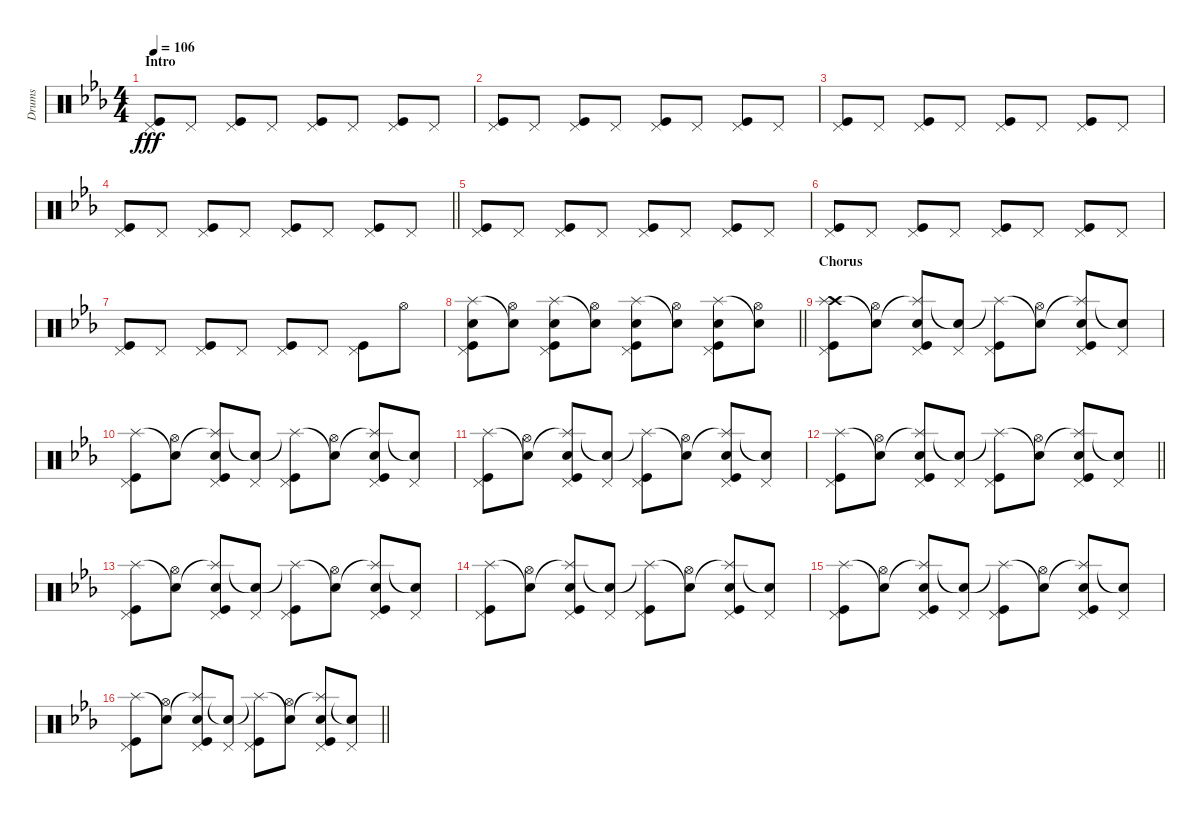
\track ("Drums" "Drums") {instrument percussion}
\staff {score}
\articulation defaults
\ts (4 4)
\section ("" "Intro")
\tempo 106
\clef neutral
\ks eb
("Pedal Hi-Hat (hit)" "Kick (hit)").8{dy fff} "Pedal Hi-Hat (hit)".8 ("Pedal Hi-Hat (hit)" "Kick (hit)").8 "Pedal Hi-Hat (hit)".8 ("Pedal Hi-Hat (hit)" "Kick (hit)").8 "Pedal Hi-Hat (hit)".8 ("Pedal Hi-Hat (hit)" "Kick (hit)").8 "Pedal Hi-Hat (hit)".8 |
("Pedal Hi-Hat (hit)" "Kick (hit)").8 "Pedal Hi-Hat (hit)".8 ("Pedal Hi-Hat (hit)" "Kick (hit)").8 "Pedal Hi-Hat (hit)".8 ("Pedal Hi-Hat (hit)" "Kick (hit)").8 "Pedal Hi-Hat (hit)".8 ("Pedal Hi-Hat (hit)" "Kick (hit)").8 "Pedal Hi-Hat (hit)".8 |
("Pedal Hi-Hat (hit)" "Kick (hit)").8 "Pedal Hi-Hat (hit)".8 ("Pedal Hi-Hat (hit)" "Kick (hit)").8 "Pedal Hi-Hat (hit)".8 ("Pedal Hi-Hat (hit)" "Kick (hit)").8 "Pedal Hi-Hat (hit)".8 ("Pedal Hi-Hat (hit)" "Kick (hit)").8 "Pedal Hi-Hat (hit)".8 |
\barLineRight lightlight
("Pedal Hi-Hat (hit)" "Kick (hit)").8 "Pedal Hi-Hat (hit)".8 ("Pedal Hi-Hat (hit)" "Kick (hit)").8 "Pedal Hi-Hat (hit)".8 ("Pedal Hi-Hat (hit)" "Kick (hit)").8 "Pedal Hi-Hat (hit)".8 ("Pedal Hi-Hat (hit)" "Kick (hit)").8 "Pedal Hi-Hat (hit)".8 |
("Pedal Hi-Hat (hit)" "Kick (hit)").8 "Pedal Hi-Hat (hit)".8 ("Pedal Hi-Hat (hit)" "Kick (hit)").8 "Pedal Hi-Hat (hit)".8 ("Pedal Hi-Hat (hit)" "Kick (hit)").8 "Pedal Hi-Hat (hit)".8 ("Pedal Hi-Hat (hit)" "Kick (hit)").8 "Pedal Hi-Hat (hit)".8 |
("Pedal Hi-Hat (hit)" "Kick (hit)").8 "Pedal Hi-Hat (hit)".8 ("Pedal Hi-Hat (hit)" "Kick (hit)").8 "Pedal Hi-Hat (hit)".8 ("Pedal Hi-Hat (hit)" "Kick (hit)").8 "Pedal Hi-Hat (hit)".8 ("Pedal Hi-Hat (hit)" "Kick (hit)").8 "Pedal Hi-Hat (hit)".8 |
("Pedal Hi-Hat (hit)" "Kick (hit)").8 "Pedal Hi-Hat (hit)".8 ("Pedal Hi-Hat (hit)" "Kick (hit)").8 "Pedal Hi-Hat (hit)".8 ("Pedal Hi-Hat (hit)" "Kick (hit)").8 "Pedal Hi-Hat (hit)".8 ("Pedal Hi-Hat (hit)" "Kick (hit)").8 "Hi-Hat (open)".8 |
\barLineRight lightlight
("Splash (hit)" "Pedal Hi-Hat (hit)" "Snare (hit) 2" "Kick (hit)").8 ("Snare (hit)"{t} "Hi-Hat (open)").8 ("Splash (hit)" "Pedal Hi-Hat (hit)" "Snare (hit) 2" "Kick (hit)").8 ("Snare (hit)"{t} "Hi-Hat (open)").8 ("Splash (hit)" "Pedal Hi-Hat (hit)" "Snare (hit) 2" "Kick (hit)").8 ("Snare (hit)"{t} "Hi-Hat (open)").8 ("Splash (hit)" "Pedal Hi-Hat (hit)" "Snare (hit) 2" "Kick (hit)").8 ("Snare (hit)"{t} "Hi-Hat (open)").8 |
\section ("" "Chorus")
("Crash high (hit)" "Splash (hit)" "Pedal Hi-Hat (hit)" "Kick (hit)").8 ("Snare (hit)"{t} "Hi-Hat (open)").8 ("Splash (hit)"{t} "Pedal Hi-Hat (hit)" "Snare (hit) 2" "Kick (hit)").8 ("Snare (hit)"{t} "Pedal Hi-Hat (hit)").8 ("Splash (hit)"{t} "Pedal Hi-Hat (hit)" "Kick (hit)").8 ("Snare (hit)"{t} "Hi-Hat (open)").8 ("Splash (hit)"{t} "Pedal Hi-Hat (hit)" "Snare (hit) 2" "Kick (hit)").8 ("Snare (hit)"{t} "Pedal Hi-Hat (hit)").8 |
("Splash (hit)" "Pedal Hi-Hat (hit)" "Kick (hit)").8 ("Snare (hit)"{t} "Hi-Hat (open)").8 ("Splash (hit)"{t} "Pedal Hi-Hat (hit)" "Snare (hit) 2" "Kick (hit)").8 ("Snare (hit)"{t} "Pedal Hi-Hat (hit)").8 ("Splash (hit)"{t} "Pedal Hi-Hat (hit)" "Kick (hit)").8 ("Snare (hit)"{t} "Hi-Hat (open)").8 ("Splash (hit)"{t} "Pedal Hi-Hat (hit)" "Snare (hit) 2" "Kick (hit)").8 ("Snare (hit)"{t} "Pedal Hi-Hat (hit)").8 |
("Splash (hit)" "Pedal Hi-Hat (hit)" "Kick (hit)").8 ("Snare (hit)"{t} "Hi-Hat (open)").8 ("Splash (hit)"{t} "Pedal Hi-Hat (hit)" "Snare (hit) 2" "Kick (hit)").8 ("Snare (hit)"{t} "Pedal Hi-Hat (hit)").8 ("Splash (hit)"{t} "Pedal Hi-Hat (hit)" "Kick (hit)").8 ("Snare (hit)"{t} "Hi-Hat (open)").8 ("Splash (hit)"{t} "Pedal Hi-Hat (hit)" "Snare (hit) 2" "Kick (hit)").8 ("Snare (hit)"{t} "Pedal Hi-Hat (hit)").8 |
\barLineRight lightlight
("Splash (hit)" "Pedal Hi-Hat (hit)" "Kick (hit)").8 ("Snare (hit)"{t} "Hi-Hat (open)").8 ("Splash (hit)"{t} "Pedal Hi-Hat (hit)" "Snare (hit) 2" "Kick (hit)").8 ("Snare (hit)"{t} "Pedal Hi-Hat (hit)").8 ("Splash (hit)"{t} "Pedal Hi-Hat (hit)" "Kick (hit)").8 ("Snare (hit)"{t} "Hi-Hat (open)").8 ("Splash (hit)"{t} "Pedal Hi-Hat (hit)" "Snare (hit) 2" "Kick (hit)").8 ("Snare (hit)"{t} "Pedal Hi-Hat (hit)").8 |
("Splash (hit)" "Pedal Hi-Hat (hit)" "Kick (hit)").8 ("Snare (hit)"{t} "Hi-Hat (open)").8 ("Splash (hit)"{t} "Pedal Hi-Hat (hit)" "Snare (hit) 2" "Kick (hit)").8 ("Snare (hit)"{t} "Pedal Hi-Hat (hit)").8 ("Splash (hit)"{t} "Pedal Hi-Hat (hit)" "Kick (hit)").8 ("Snare (hit)"{t} "Hi-Hat (open)").8 ("Splash (hit)"{t} "Pedal Hi-Hat (hit)" "Snare (hit) 2" "Kick (hit)").8 ("Snare (hit)"{t} "Pedal Hi-Hat (hit)").8 |
("Splash (hit)" "Pedal Hi-Hat (hit)" "Kick (hit)").8 ("Snare (hit)"{t} "Hi-Hat (open)").8 ("Splash (hit)"{t} "Pedal Hi-Hat (hit)" "Snare (hit) 2" "Kick (hit)").8 ("Snare (hit)"{t} "Pedal Hi-Hat (hit)").8 ("Splash (hit)"{t} "Pedal Hi-Hat (hit)" "Kick (hit)").8 ("Snare (hit)"{t} "Hi-Hat (open)").8 ("Splash (hit)"{t} "Pedal Hi-Hat (hit)" "Snare (hit) 2" "Kick (hit)").8 ("Snare (hit)"{t} "Pedal Hi-Hat (hit)").8 |
("Splash (hit)" "Pedal Hi-Hat (hit)" "Kick (hit)").8 ("Snare (hit)"{t} "Hi-Hat (open)").8 ("Splash (hit)"{t} "Pedal Hi-Hat (hit)" "Snare (hit) 2" "Kick (hit)").8 ("Snare (hit)"{t} "Pedal Hi-Hat (hit)").8 ("Splash (hit)"{t} "Pedal Hi-Hat (hit)" "Kick (hit)").8 ("Snare (hit)"{t} "Hi-Hat (open)").8 ("Splash (hit)"{t} "Pedal Hi-Hat (hit)" "Snare (hit) 2" "Kick (hit)").8 ("Snare (hit)"{t} "Pedal Hi-Hat (hit)").8 |
\barLineRight lightlight
("Splash (hit)" "Pedal Hi-Hat (hit)" "Kick (hit)").8 ("Snare (hit)"{t} "Hi-Hat (open)").8 ("Splash (hit)"{t} "Pedal Hi-Hat (hit)" "Snare (hit) 2" "Kick (hit)").8 ("Snare (hit)"{t} "Pedal Hi-Hat (hit)").8 ("Splash (hit)"{t} "Pedal Hi-Hat (hit)" "Kick (hit)").8 ("Snare (hit)"{t} "Hi-Hat (open)").8 ("Splash (hit)"{t} "Pedal Hi-Hat (hit)" "Snare (hit) 2" "Kick (hit)").8 ("Snare (hit)"{t} "Pedal Hi-Hat (hit)").8
